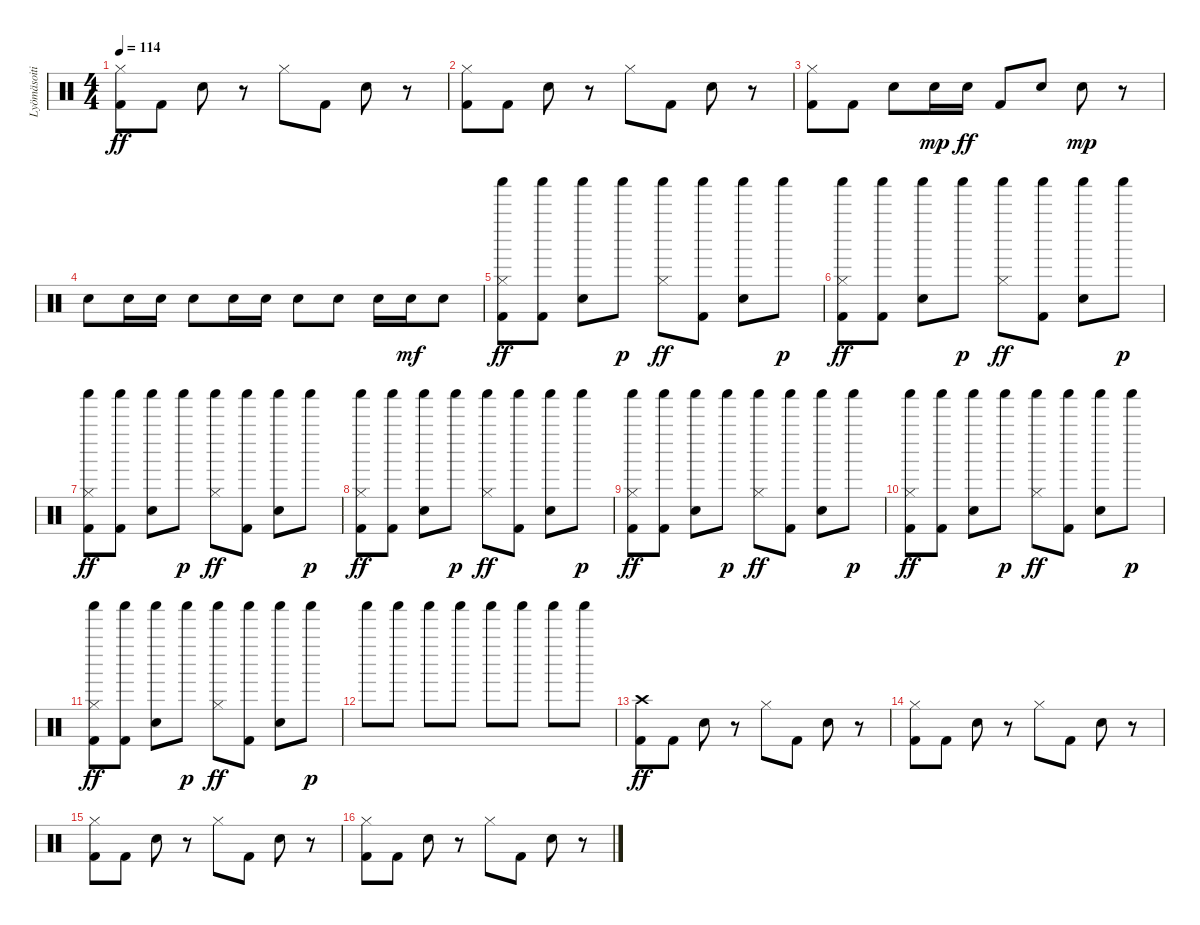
\track ("Lyömäsoitin" "Lyömäsoiti") {instrument percussion}
\staff {score}
\articulation defaults
\ts (4 4)
\tempo 114
\clef neutral
\ks c
("Hi-Hat (closed)" "Kick (hit) 2").8{dy ff} "Kick (hit) 2".8 "Electric Snare (hit)".8 r.8 "Hi-Hat (closed)".8 "Kick (hit) 2".8 "Electric Snare (hit)".8 r.8 |
("Hi-Hat (closed)" "Kick (hit) 2").8 "Kick (hit) 2".8 "Electric Snare (hit)".8 r.8 "Hi-Hat (closed)".8 "Kick (hit) 2".8 "Electric Snare (hit)".8 r.8 |
("Hi-Hat (closed)" "Kick (hit) 2").8 "Kick (hit) 2".8 "Electric Snare (hit)".8 "Electric Snare (hit)".16{dy mp} "Electric Snare (hit)".16{dy ff} "Kick (hit) 2".8 "Electric Snare (hit)".8 "Electric Snare (hit)".8{dy mp} r.8 |
"Electric Snare (hit)".8 "Electric Snare (hit)".16 "Electric Snare (hit)".16 "Electric Snare (hit)".8 "Electric Snare (hit)".16 "Electric Snare (hit)".16 "Electric Snare (hit)".8 "Electric Snare (hit)".8 "Electric Snare (hit)".16 "Electric Snare (hit)".16{dy mf} "Electric Snare (hit)".8 |
("Shaker (hit)" "Hi-Hat (closed)" "Kick (hit) 2").8{dy ff} ("Shaker (hit)" "Kick (hit) 2").8 ("Shaker (hit)" "Electric Snare (hit)").8 "Shaker (hit)".8{dy p} ("Shaker (hit)" "Hi-Hat (closed)").8{dy ff} ("Shaker (hit)" "Kick (hit) 2").8 ("Shaker (hit)" "Electric Snare (hit)").8 "Shaker (hit)".8{dy p} |
("Shaker (hit)" "Hi-Hat (closed)" "Kick (hit) 2").8{dy ff} ("Shaker (hit)" "Kick (hit) 2").8 ("Shaker (hit)" "Electric Snare (hit)").8 "Shaker (hit)".8{dy p} ("Shaker (hit)" "Hi-Hat (closed)").8{dy ff} ("Shaker (hit)" "Kick (hit) 2").8 ("Shaker (hit)" "Electric Snare (hit)").8 "Shaker (hit)".8{dy p} |
("Shaker (hit)" "Hi-Hat (closed)" "Kick (hit) 2").8{dy ff} ("Shaker (hit)" "Kick (hit) 2").8 ("Shaker (hit)" "Electric Snare (hit)").8 "Shaker (hit)".8{dy p} ("Shaker (hit)" "Hi-Hat (closed)").8{dy ff} ("Shaker (hit)" "Kick (hit) 2").8 ("Shaker (hit)" "Electric Snare (hit)").8 "Shaker (hit)".8{dy p} |
("Shaker (hit)" "Hi-Hat (closed)" "Kick (hit) 2").8{dy ff} ("Shaker (hit)" "Kick (hit) 2").8 ("Shaker (hit)" "Electric Snare (hit)").8 "Shaker (hit)".8{dy p} ("Shaker (hit)" "Hi-Hat (closed)").8{dy ff} ("Shaker (hit)" "Kick (hit) 2").8 ("Shaker (hit)" "Electric Snare (hit)").8 "Shaker (hit)".8{dy p} |
("Shaker (hit)" "Hi-Hat (closed)" "Kick (hit) 2").8{dy ff} ("Shaker (hit)" "Kick (hit) 2").8 ("Shaker (hit)" "Electric Snare (hit)").8 "Shaker (hit)".8{dy p} ("Shaker (hit)" "Hi-Hat (closed)").8{dy ff} ("Shaker (hit)" "Kick (hit) 2").8 ("Shaker (hit)" "Electric Snare (hit)").8 "Shaker (hit)".8{dy p} |
("Shaker (hit)" "Hi-Hat (closed)" "Kick (hit) 2").8{dy ff} ("Shaker (hit)" "Kick (hit) 2").8 ("Shaker (hit)" "Electric Snare (hit)").8 "Shaker (hit)".8{dy p} ("Shaker (hit)" "Hi-Hat (closed)").8{dy ff} ("Shaker (hit)" "Kick (hit) 2").8 ("Shaker (hit)" "Electric Snare (hit)").8 "Shaker (hit)".8{dy p} |
("Shaker (hit)" "Hi-Hat (closed)" "Kick (hit) 2").8{dy ff} ("Shaker (hit)" "Kick (hit) 2").8 ("Shaker (hit)" "Electric Snare (hit)").8 "Shaker (hit)".8{dy p} ("Shaker (hit)" "Hi-Hat (closed)").8{dy ff} ("Shaker (hit)" "Kick (hit) 2").8 ("Shaker (hit)" "Electric Snare (hit)").8 "Shaker (hit)".8{dy p} |
"Shaker (hit)".8 "Shaker (hit)".8 "Shaker (hit)".8 "Shaker (hit)".8 "Shaker (hit)".8 "Shaker (hit)".8 "Shaker (hit)".8 "Shaker (hit)".8 |
("Crash high (hit)" "Kick (hit) 2").8{dy ff} "Kick (hit) 2".8 "Electric Snare (hit)".8 r.8 "Hi-Hat (closed)".8 "Kick (hit) 2".8 "Electric Snare (hit)".8 r.8 |
("Hi-Hat (closed)" "Kick (hit) 2").8 "Kick (hit) 2".8 "Electric Snare (hit)".8 r.8 "Hi-Hat (closed)".8 "Kick (hit) 2".8 "Electric Snare (hit)".8 r.8 |
("Hi-Hat (closed)" "Kick (hit) 2").8 "Kick (hit) 2".8 "Electric Snare (hit)".8 r.8 "Hi-Hat (closed)".8 "Kick (hit) 2".8 "Electric Snare (hit)".8 r.8 |
("Hi-Hat (closed)" "Kick (hit) 2").8 "Kick (hit) 2".8 "Electric Snare (hit)".8 r.8 "Hi-Hat (closed)".8 "Kick (hit) 2".8 "Electric Snare (hit)".8 r.8
